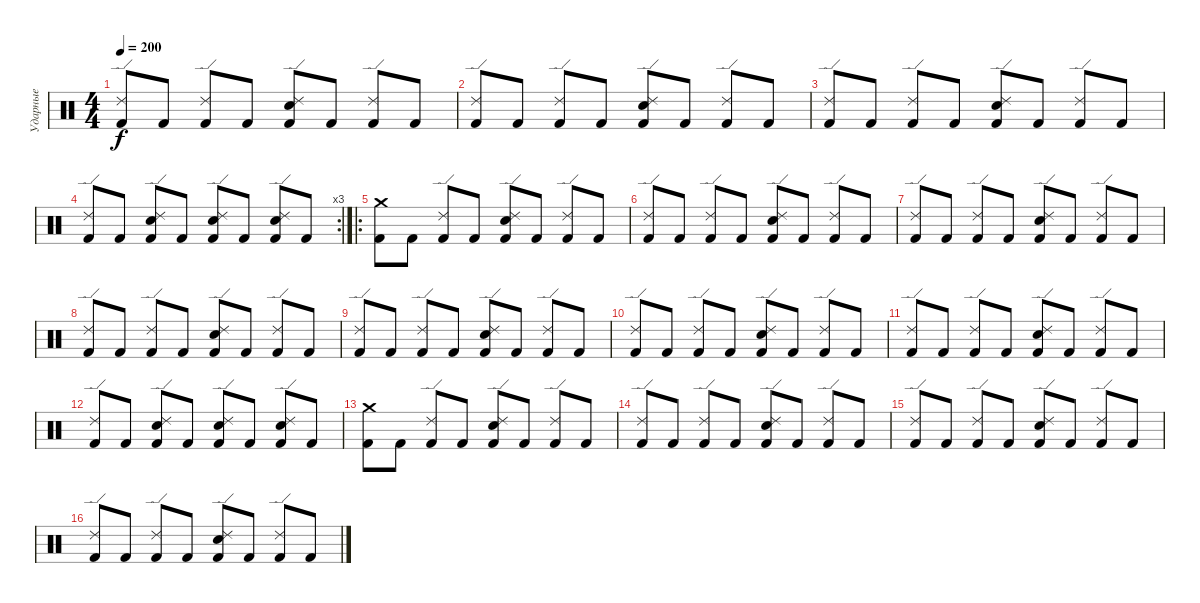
\track ("Ударные" "Ударные") {instrument percussion}
\staff {score}
\articulation defaults
\ts (4 4)
\tempo 200
\clef neutral
\ks c
("Ride (edge) 2" "Kick (hit) 2").8{dy f} "Kick (hit) 2".8 ("Ride (edge) 2" "Kick (hit) 2").8 "Kick (hit) 2".8 ("Ride (edge) 2" "Snare (hit) 2" "Kick (hit) 2").8 "Kick (hit) 2".8 ("Ride (edge) 2" "Kick (hit) 2").8 "Kick (hit) 2".8 |
("Ride (edge) 2" "Kick (hit) 2").8 "Kick (hit) 2".8 ("Ride (edge) 2" "Kick (hit) 2").8 "Kick (hit) 2".8 ("Ride (edge) 2" "Snare (hit) 2" "Kick (hit) 2").8 "Kick (hit) 2".8 ("Ride (edge) 2" "Kick (hit) 2").8 "Kick (hit) 2".8 |
("Ride (edge) 2" "Kick (hit) 2").8 "Kick (hit) 2".8 ("Ride (edge) 2" "Kick (hit) 2").8 "Kick (hit) 2".8 ("Ride (edge) 2" "Snare (hit) 2" "Kick (hit) 2").8 "Kick (hit) 2".8 ("Ride (edge) 2" "Kick (hit) 2").8 "Kick (hit) 2".8 |
\rc 3
("Ride (edge) 2" "Kick (hit) 2").8 "Kick (hit) 2".8 ("Ride (edge) 2" "Snare (hit) 2" "Kick (hit) 2").8 "Kick (hit) 2".8 ("Ride (edge) 2" "Snare (hit) 2" "Kick (hit) 2").8 "Kick (hit) 2".8 ("Ride (edge) 2" "Snare (hit) 2" "Kick (hit) 2").8 "Kick (hit) 2".8 |
\ro
("Crash medium (hit)" "Kick (hit) 2").8 "Kick (hit) 2".8 ("Ride (edge) 2" "Kick (hit) 2").8 "Kick (hit) 2".8 ("Ride (edge) 2" "Snare (hit) 2" "Kick (hit) 2").8 "Kick (hit) 2".8 ("Ride (edge) 2" "Kick (hit) 2").8 "Kick (hit) 2".8 |
("Ride (edge) 2" "Kick (hit) 2").8 "Kick (hit) 2".8 ("Ride (edge) 2" "Kick (hit) 2").8 "Kick (hit) 2".8 ("Ride (edge) 2" "Snare (hit) 2" "Kick (hit) 2").8 "Kick (hit) 2".8 ("Ride (edge) 2" "Kick (hit) 2").8 "Kick (hit) 2".8 |
("Ride (edge) 2" "Kick (hit) 2").8 "Kick (hit) 2".8 ("Ride (edge) 2" "Kick (hit) 2").8 "Kick (hit) 2".8 ("Ride (edge) 2" "Snare (hit) 2" "Kick (hit) 2").8 "Kick (hit) 2".8 ("Ride (edge) 2" "Kick (hit) 2").8 "Kick (hit) 2".8 |
("Ride (edge) 2" "Kick (hit) 2").8 "Kick (hit) 2".8 ("Ride (edge) 2" "Kick (hit) 2").8 "Kick (hit) 2".8 ("Ride (edge) 2" "Snare (hit) 2" "Kick (hit) 2").8 "Kick (hit) 2".8 ("Ride (edge) 2" "Kick (hit) 2").8 "Kick (hit) 2".8 |
("Ride (edge) 2" "Kick (hit) 2").8 "Kick (hit) 2".8 ("Ride (edge) 2" "Kick (hit) 2").8 "Kick (hit) 2".8 ("Ride (edge) 2" "Snare (hit) 2" "Kick (hit) 2").8 "Kick (hit) 2".8 ("Ride (edge) 2" "Kick (hit) 2").8 "Kick (hit) 2".8 |
("Ride (edge) 2" "Kick (hit) 2").8 "Kick (hit) 2".8 ("Ride (edge) 2" "Kick (hit) 2").8 "Kick (hit) 2".8 ("Ride (edge) 2" "Snare (hit) 2" "Kick (hit) 2").8 "Kick (hit) 2".8 ("Ride (edge) 2" "Kick (hit) 2").8 "Kick (hit) 2".8 |
("Ride (edge) 2" "Kick (hit) 2").8 "Kick (hit) 2".8 ("Ride (edge) 2" "Kick (hit) 2").8 "Kick (hit) 2".8 ("Ride (edge) 2" "Snare (hit) 2" "Kick (hit) 2").8 "Kick (hit) 2".8 ("Ride (edge) 2" "Kick (hit) 2").8 "Kick (hit) 2".8 |
("Ride (edge) 2" "Kick (hit) 2").8 "Kick (hit) 2".8 ("Ride (edge) 2" "Snare (hit) 2" "Kick (hit) 2").8 "Kick (hit) 2".8 ("Ride (edge) 2" "Snare (hit) 2" "Kick (hit) 2").8 "Kick (hit) 2".8 ("Ride (edge) 2" "Snare (hit) 2" "Kick (hit) 2").8 "Kick (hit) 2".8 |
("Crash medium (hit)" "Kick (hit) 2").8 "Kick (hit) 2".8 ("Ride (edge) 2" "Kick (hit) 2").8 "Kick (hit) 2".8 ("Ride (edge) 2" "Snare (hit) 2" "Kick (hit) 2").8 "Kick (hit) 2".8 ("Ride (edge) 2" "Kick (hit) 2").8 "Kick (hit) 2".8 |
("Ride (edge) 2" "Kick (hit) 2").8 "Kick (hit) 2".8 ("Ride (edge) 2" "Kick (hit) 2").8 "Kick (hit) 2".8 ("Ride (edge) 2" "Snare (hit) 2" "Kick (hit) 2").8 "Kick (hit) 2".8 ("Ride (edge) 2" "Kick (hit) 2").8 "Kick (hit) 2".8 |
("Ride (edge) 2" "Kick (hit) 2").8 "Kick (hit) 2".8 ("Ride (edge) 2" "Kick (hit) 2").8 "Kick (hit) 2".8 ("Ride (edge) 2" "Snare (hit) 2" "Kick (hit) 2").8 "Kick (hit) 2".8 ("Ride (edge) 2" "Kick (hit) 2").8 "Kick (hit) 2".8 |
("Ride (edge) 2" "Kick (hit) 2").8 "Kick (hit) 2".8 ("Ride (edge) 2" "Kick (hit) 2").8 "Kick (hit) 2".8 ("Ride (edge) 2" "Snare (hit) 2" "Kick (hit) 2").8 "Kick (hit) 2".8 ("Ride (edge) 2" "Kick (hit) 2").8 "Kick (hit) 2".8
